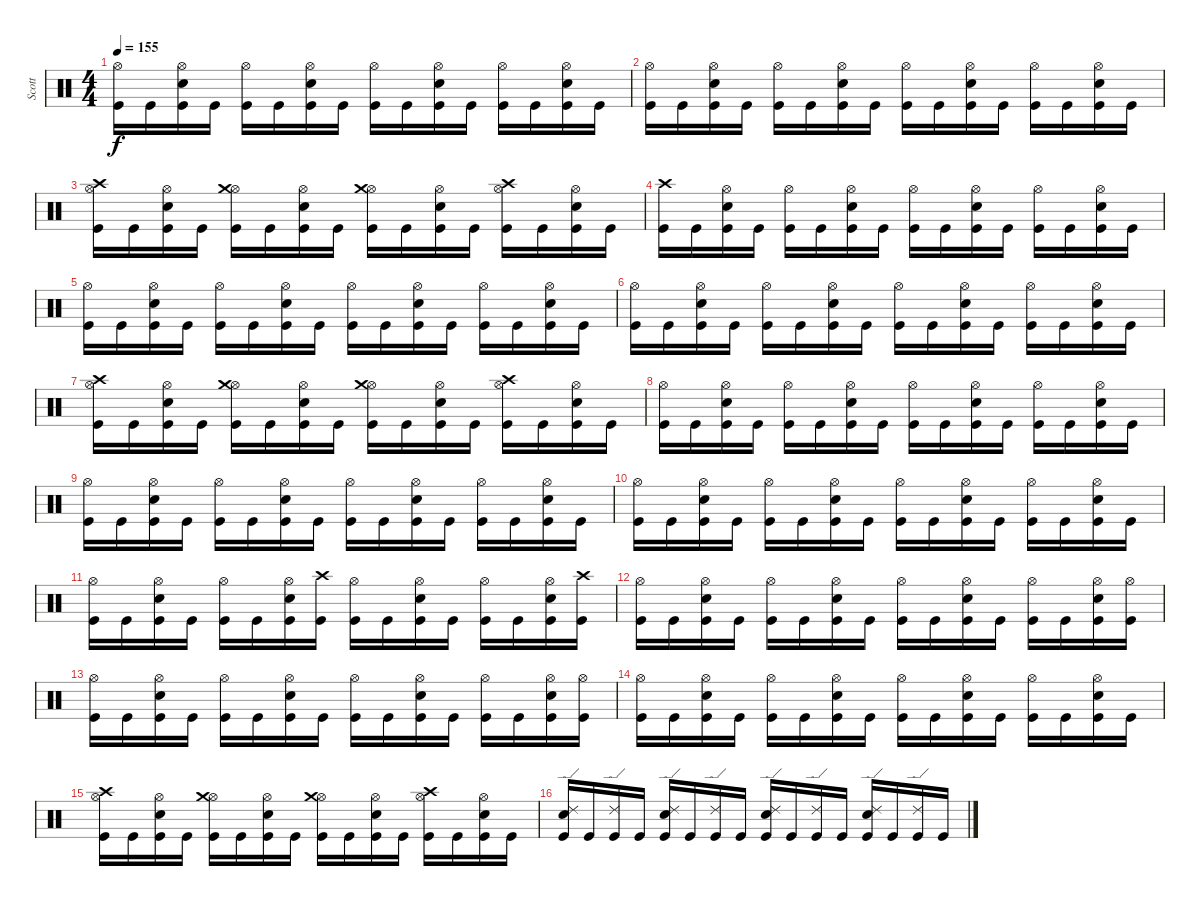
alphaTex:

\track ("Scott" "Scott") {instrument percussion}
\staff {score}
\articulation defaults
\ts (4 4)
\tempo 155
\clef neutral
\ks c
("Hi-Hat (open)" "Kick (hit)").16{dy f} "Kick (hit)".16 ("Hi-Hat (open)" "Snare (hit) 2" "Kick (hit)").16 "Kick (hit)".16 ("Hi-Hat (open)" "Kick (hit)").16 "Kick (hit)".16 ("Hi-Hat (open)" "Snare (hit) 2" "Kick (hit)").16 "Kick (hit)".16 ("Hi-Hat (open)" "Kick (hit)").16 "Kick (hit)".16 ("Hi-Hat (open)" "Snare (hit) 2" "Kick (hit)").16 "Kick (hit)".16 ("Hi-Hat (open)" "Kick (hit)").16 "Kick (hit)".16 ("Hi-Hat (open)" "Snare (hit) 2" "Kick (hit)").16 "Kick (hit)".16 |
("Hi-Hat (open)" "Kick (hit)").16 "Kick (hit)".16 ("Hi-Hat (open)" "Snare (hit) 2" "Kick (hit)").16 "Kick (hit)".16 ("Hi-Hat (open)" "Kick (hit)").16 "Kick (hit)".16 ("Hi-Hat (open)" "Snare (hit) 2" "Kick (hit)").16 "Kick (hit)".16 ("Hi-Hat (open)" "Kick (hit)").16 "Kick (hit)".16 ("Hi-Hat (open)" "Snare (hit) 2" "Kick (hit)").16 "Kick (hit)".16 ("Hi-Hat (open)" "Kick (hit)").16 "Kick (hit)".16 ("Hi-Hat (open)" "Snare (hit) 2" "Kick (hit)").16 "Kick (hit)".16 |
("Hi-Hat (open)" "Crash high (hit)" "Kick (hit)").16 "Kick (hit)".16 ("Hi-Hat (open)" "Snare (hit) 2" "Kick (hit)").16 "Kick (hit)".16 ("Hi-Hat (open)" "Crash medium (hit)" "Kick (hit)").16 "Kick (hit)".16 ("Hi-Hat (open)" "Snare (hit) 2" "Kick (hit)").16 "Kick (hit)".16 ("Hi-Hat (open)" "Crash medium (hit)" "Kick (hit)").16 "Kick (hit)".16 ("Hi-Hat (open)" "Snare (hit) 2" "Kick (hit)").16 "Kick (hit)".16 ("Hi-Hat (open)" "Crash high (hit)" "Kick (hit)").16 "Kick (hit)".16 ("Hi-Hat (open)" "Snare (hit) 2" "Kick (hit)").16 "Kick (hit)".16 |
("Crash high (hit)" "Kick (hit)").16 "Kick (hit)".16 ("Hi-Hat (open)" "Snare (hit) 2" "Kick (hit)").16 "Kick (hit)".16 ("Hi-Hat (open)" "Kick (hit)").16 "Kick (hit)".16 ("Hi-Hat (open)" "Snare (hit) 2" "Kick (hit)").16 "Kick (hit)".16 ("Hi-Hat (open)" "Kick (hit)").16 "Kick (hit)".16 ("Hi-Hat (open)" "Snare (hit) 2" "Kick (hit)").16 "Kick (hit)".16 ("Hi-Hat (open)" "Kick (hit)").16 "Kick (hit)".16 ("Hi-Hat (open)" "Snare (hit) 2" "Kick (hit)").16 "Kick (hit)".16 |
("Hi-Hat (open)" "Kick (hit)").16 "Kick (hit)".16 ("Hi-Hat (open)" "Snare (hit) 2" "Kick (hit)").16 "Kick (hit)".16 ("Hi-Hat (open)" "Kick (hit)").16 "Kick (hit)".16 ("Hi-Hat (open)" "Snare (hit) 2" "Kick (hit)").16 "Kick (hit)".16 ("Hi-Hat (open)" "Kick (hit)").16 "Kick (hit)".16 ("Hi-Hat (open)" "Snare (hit) 2" "Kick (hit)").16 "Kick (hit)".16 ("Hi-Hat (open)" "Kick (hit)").16 "Kick (hit)".16 ("Hi-Hat (open)" "Snare (hit) 2" "Kick (hit)").16 "Kick (hit)".16 |
("Hi-Hat (open)" "Kick (hit)").16 "Kick (hit)".16 ("Hi-Hat (open)" "Snare (hit) 2" "Kick (hit)").16 "Kick (hit)".16 ("Hi-Hat (open)" "Kick (hit)").16 "Kick (hit)".16 ("Hi-Hat (open)" "Snare (hit) 2" "Kick (hit)").16 "Kick (hit)".16 ("Hi-Hat (open)" "Kick (hit)").16 "Kick (hit)".16 ("Hi-Hat (open)" "Snare (hit) 2" "Kick (hit)").16 "Kick (hit)".16 ("Hi-Hat (open)" "Kick (hit)").16 "Kick (hit)".16 ("Hi-Hat (open)" "Snare (hit) 2" "Kick (hit)").16 "Kick (hit)".16 |
("Hi-Hat (open)" "Crash high (hit)" "Kick (hit)").16 "Kick (hit)".16 ("Hi-Hat (open)" "Snare (hit) 2" "Kick (hit)").16 "Kick (hit)".16 ("Hi-Hat (open)" "Crash medium (hit)" "Kick (hit)").16 "Kick (hit)".16 ("Hi-Hat (open)" "Snare (hit) 2" "Kick (hit)").16 "Kick (hit)".16 ("Hi-Hat (open)" "Crash medium (hit)" "Kick (hit)").16 "Kick (hit)".16 ("Hi-Hat (open)" "Snare (hit) 2" "Kick (hit)").16 "Kick (hit)".16 ("Hi-Hat (open)" "Crash high (hit)" "Kick (hit)").16 "Kick (hit)".16 ("Hi-Hat (open)" "Snare (hit) 2" "Kick (hit)").16 "Kick (hit)".16 |
("Hi-Hat (open)" "Kick (hit)").16 "Kick (hit)".16 ("Hi-Hat (open)" "Snare (hit) 2" "Kick (hit)").16 "Kick (hit)".16 ("Hi-Hat (open)" "Kick (hit)").16 "Kick (hit)".16 ("Hi-Hat (open)" "Snare (hit) 2" "Kick (hit)").16 "Kick (hit)".16 ("Hi-Hat (open)" "Kick (hit)").16 "Kick (hit)".16 ("Hi-Hat (open)" "Snare (hit) 2" "Kick (hit)").16 "Kick (hit)".16 ("Hi-Hat (open)" "Kick (hit)").16 "Kick (hit)".16 ("Hi-Hat (open)" "Snare (hit) 2" "Kick (hit)").16 "Kick (hit)".16 |
("Hi-Hat (open)" "Kick (hit)").16 "Kick (hit)".16 ("Hi-Hat (open)" "Snare (hit) 2" "Kick (hit)").16 "Kick (hit)".16 ("Hi-Hat (open)" "Kick (hit)").16 "Kick (hit)".16 ("Hi-Hat (open)" "Snare (hit) 2" "Kick (hit)").16 "Kick (hit)".16 ("Hi-Hat (open)" "Kick (hit)").16 "Kick (hit)".16 ("Hi-Hat (open)" "Snare (hit) 2" "Kick (hit)").16 "Kick (hit)".16 ("Hi-Hat (open)" "Kick (hit)").16 "Kick (hit)".16 ("Hi-Hat (open)" "Snare (hit) 2" "Kick (hit)").16 "Kick (hit)".16 |
("Hi-Hat (open)" "Kick (hit)").16 "Kick (hit)".16 ("Hi-Hat (open)" "Snare (hit) 2" "Kick (hit)").16 "Kick (hit)".16 ("Hi-Hat (open)" "Kick (hit)").16 "Kick (hit)".16 ("Hi-Hat (open)" "Snare (hit) 2" "Kick (hit)").16 "Kick (hit)".16 ("Hi-Hat (open)" "Kick (hit)").16 "Kick (hit)".16 ("Hi-Hat (open)" "Snare (hit) 2" "Kick (hit)").16 "Kick (hit)".16 ("Hi-Hat (open)" "Kick (hit)").16 "Kick (hit)".16 ("Hi-Hat (open)" "Snare (hit) 2" "Kick (hit)").16 "Kick (hit)".16 |
("Hi-Hat (open)" "Kick (hit)").16 "Kick (hit)".16 ("Hi-Hat (open)" "Snare (hit) 2" "Kick (hit)").16 "Kick (hit)".16 ("Hi-Hat (open)" "Kick (hit)").16 "Kick (hit)".16 ("Hi-Hat (open)" "Snare (hit) 2" "Kick (hit)").16 ("Crash high (hit)" "Kick (hit)").16 ("Hi-Hat (open)" "Kick (hit)").16 "Kick (hit)".16 ("Hi-Hat (open)" "Snare (hit) 2" "Kick (hit)").16 "Kick (hit)".16 ("Hi-Hat (open)" "Kick (hit)").16 "Kick (hit)".16 ("Hi-Hat (open)" "Snare (hit) 2" "Kick (hit)").16 ("Crash high (hit)" "Kick (hit)").16 |
("Hi-Hat (open)" "Kick (hit)").16 "Kick (hit)".16 ("Hi-Hat (open)" "Snare (hit) 2" "Kick (hit)").16 "Kick (hit)".16 ("Hi-Hat (open)" "Kick (hit)").16 "Kick (hit)".16 ("Hi-Hat (open)" "Snare (hit) 2" "Kick (hit)").16 "Kick (hit)".16 ("Hi-Hat (open)" "Kick (hit)").16 "Kick (hit)".16 ("Hi-Hat (open)" "Snare (hit) 2" "Kick (hit)").16 "Kick (hit)".16 ("Hi-Hat (open)" "Kick (hit)").16 "Kick (hit)".16 ("Hi-Hat (open)" "Snare (hit) 2" "Kick (hit)").16 ("Hi-Hat (open)" "Kick (hit)").16 |
("Hi-Hat (open)" "Kick (hit)").16 "Kick (hit)".16 ("Hi-Hat (open)" "Snare (hit) 2" "Kick (hit)").16 "Kick (hit)".16 ("Hi-Hat (open)" "Kick (hit)").16 "Kick (hit)".16 ("Hi-Hat (open)" "Snare (hit) 2" "Kick (hit)").16 "Kick (hit)".16 ("Hi-Hat (open)" "Kick (hit)").16 "Kick (hit)".16 ("Hi-Hat (open)" "Snare (hit) 2" "Kick (hit)").16 "Kick (hit)".16 ("Hi-Hat (open)" "Kick (hit)").16 "Kick (hit)".16 ("Hi-Hat (open)" "Snare (hit) 2" "Kick (hit)").16 ("Hi-Hat (open)" "Kick (hit)").16 |
("Hi-Hat (open)" "Kick (hit)").16 "Kick (hit)".16 ("Hi-Hat (open)" "Snare (hit) 2" "Kick (hit)").16 "Kick (hit)".16 ("Hi-Hat (open)" "Kick (hit)").16 "Kick (hit)".16 ("Hi-Hat (open)" "Snare (hit) 2" "Kick (hit)").16 "Kick (hit)".16 ("Hi-Hat (open)" "Kick (hit)").16 "Kick (hit)".16 ("Hi-Hat (open)" "Snare (hit) 2" "Kick (hit)").16 "Kick (hit)".16 ("Hi-Hat (open)" "Kick (hit)").16 "Kick (hit)".16 ("Hi-Hat (open)" "Snare (hit) 2" "Kick (hit)").16 "Kick (hit)".16 |
("Hi-Hat (open)" "Crash high (hit)" "Kick (hit)").16 "Kick (hit)".16 ("Hi-Hat (open)" "Snare (hit) 2" "Kick (hit)").16 "Kick (hit)".16 ("Hi-Hat (open)" "Crash medium (hit)" "Kick (hit)").16 "Kick (hit)".16 ("Hi-Hat (open)" "Snare (hit) 2" "Kick (hit)").16 "Kick (hit)".16 ("Hi-Hat (open)" "Crash medium (hit)" "Kick (hit)").16 "Kick (hit)".16 ("Hi-Hat (open)" "Snare (hit) 2" "Kick (hit)").16 "Kick (hit)".16 ("Hi-Hat (open)" "Crash high (hit)" "Kick (hit)").16 "Kick (hit)".16 ("Hi-Hat (open)" "Snare (hit) 2" "Kick (hit)").16 "Kick (hit)".16 |
("Ride (edge) 2" "Snare (hit) 2" "Kick (hit)").16 "Kick (hit)".16 ("Ride (edge) 2" "Kick (hit)").16 "Kick (hit)".16 ("Ride (edge) 2" "Snare (hit) 2" "Kick (hit)").16 "Kick (hit)".16 ("Ride (edge) 2" "Kick (hit)").16 "Kick (hit)".16 ("Ride (edge) 2" "Snare (hit) 2" "Kick (hit)").16 "Kick (hit)".16 ("Ride (edge) 2" "Kick (hit)").16 "Kick (hit)".16 ("Ride (edge) 2" "Snare (hit) 2" "Kick (hit)").16 "Kick (hit)".16 ("Ride (edge) 2" "Kick (hit)").16 "Kick (hit)".16
